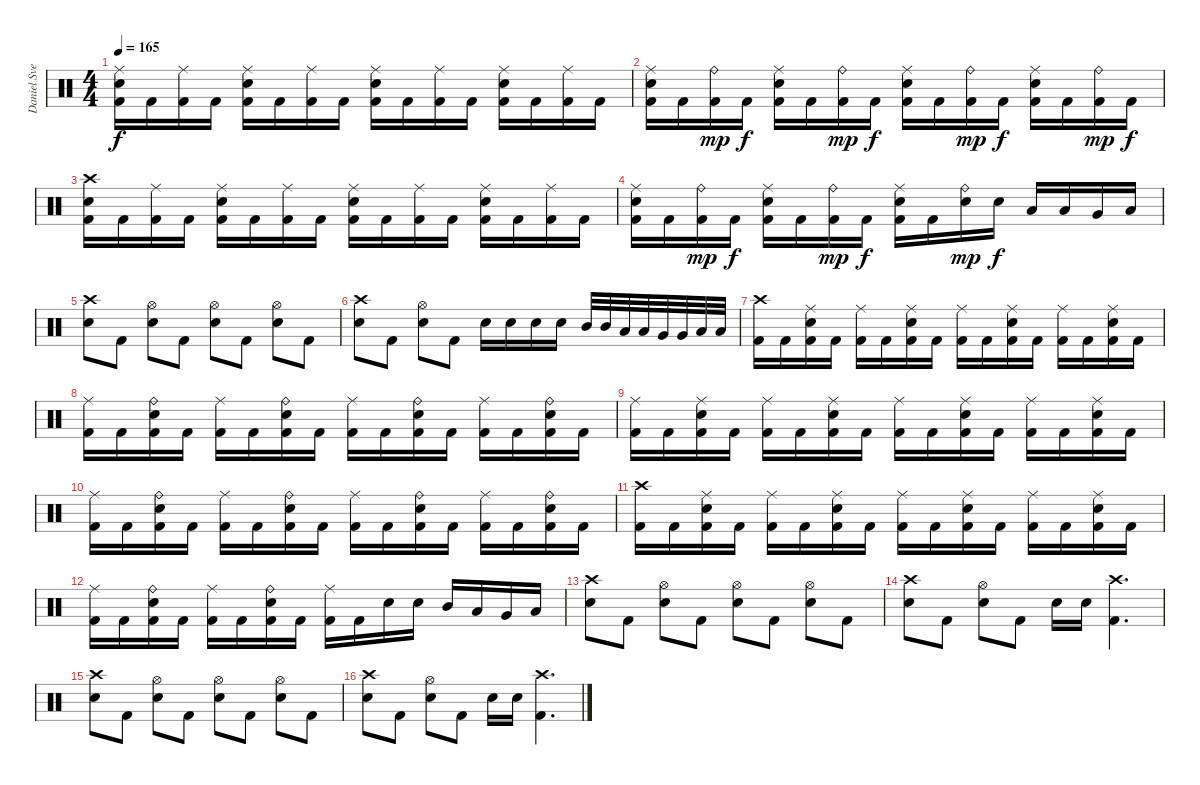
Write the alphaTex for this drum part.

\track ("Daniel Svensson" "Daniel Sve") {instrument percussion}
\staff {score}
\articulation defaults
\ts (4 4)
\tempo 165
\clef neutral
\ks c
("Ride (middle)" "Electric Snare (hit)" "Kick (hit) 2").16{dy f} "Kick (hit) 2".16 ("Ride (middle)" "Kick (hit) 2").16 "Kick (hit) 2".16 ("Ride (middle)" "Electric Snare (hit)" "Kick (hit) 2").16 "Kick (hit) 2".16 ("Ride (middle)" "Kick (hit) 2").16 "Kick (hit) 2".16 ("Ride (middle)" "Electric Snare (hit)" "Kick (hit) 2").16 "Kick (hit) 2".16 ("Ride (middle)" "Kick (hit) 2").16 "Kick (hit) 2".16 ("Ride (middle)" "Electric Snare (hit)" "Kick (hit) 2").16 "Kick (hit) 2".16 ("Ride (middle)" "Kick (hit) 2").16 "Kick (hit) 2".16 |
("Ride (middle)" "Electric Snare (hit)" "Kick (hit) 2").16 "Kick (hit) 2".16 ("Ride (bell)" "Kick (hit) 2").16{dy mp} "Kick (hit) 2".16{dy f} ("Ride (middle)" "Electric Snare (hit)" "Kick (hit) 2").16 "Kick (hit) 2".16 ("Ride (bell)" "Kick (hit) 2").16{dy mp} "Kick (hit) 2".16{dy f} ("Ride (middle)" "Electric Snare (hit)" "Kick (hit) 2").16 "Kick (hit) 2".16 ("Ride (bell)" "Kick (hit) 2").16{dy mp} "Kick (hit) 2".16{dy f} ("Ride (middle)" "Electric Snare (hit)" "Kick (hit) 2").16 "Kick (hit) 2".16 ("Ride (bell)" "Kick (hit) 2").16{dy mp} "Kick (hit) 2".16{dy f} |
("Crash high (hit)" "Electric Snare (hit)" "Kick (hit) 2").16 "Kick (hit) 2".16 ("Ride (middle)" "Kick (hit) 2").16 "Kick (hit) 2".16 ("Ride (middle)" "Electric Snare (hit)" "Kick (hit) 2").16 "Kick (hit) 2".16 ("Ride (middle)" "Kick (hit) 2").16 "Kick (hit) 2".16 ("Ride (middle)" "Electric Snare (hit)" "Kick (hit) 2").16 "Kick (hit) 2".16 ("Ride (middle)" "Kick (hit) 2").16 "Kick (hit) 2".16 ("Ride (middle)" "Electric Snare (hit)" "Kick (hit) 2").16 "Kick (hit) 2".16 ("Ride (middle)" "Kick (hit) 2").16 "Kick (hit) 2".16 |
("Ride (middle)" "Electric Snare (hit)" "Kick (hit) 2").16 "Kick (hit) 2".16 ("Ride (bell)" "Kick (hit) 2").16{dy mp} "Kick (hit) 2".16{dy f} ("Ride (middle)" "Electric Snare (hit)" "Kick (hit) 2").16 "Kick (hit) 2".16 ("Ride (bell)" "Kick (hit) 2").16{dy mp} "Kick (hit) 2".16{dy f} ("Ride (middle)" "Electric Snare (hit)" "Kick (hit) 2").16 "Kick (hit) 2".16 ("Ride (bell)" "Electric Snare (hit)").16{dy mp} "Electric Snare (hit)".16{dy f} "Low Tom (hit)".16 "Low Tom (hit)".16 "Very Low Tom (hit)".16 "Low Floor Tom (hit)".16 |
("Crash high (hit)" "Electric Snare (hit)").8 "Kick (hit) 2".8 ("Hi-Hat (open)" "Electric Snare (hit)").8 "Kick (hit) 2".8 ("Hi-Hat (open)" "Electric Snare (hit)").8 "Kick (hit) 2".8 ("Hi-Hat (open)" "Electric Snare (hit)").8 "Kick (hit) 2".8 |
("Crash high (hit)" "Electric Snare (hit)").8 "Kick (hit) 2".8 ("Hi-Hat (open)" "Electric Snare (hit)").8 "Kick (hit) 2".8 "Electric Snare (hit)".16 "Electric Snare (hit)".16 "Electric Snare (hit)".16 "Electric Snare (hit)".16 "Mid Tom (hit)".32 "Mid Tom (hit)".32 "Low Tom (hit)".32 "Low Tom (hit)".32 "Very Low Tom (hit)".32 "Very Low Tom (hit)".32 "Low Floor Tom (hit)".32 "Low Floor Tom (hit)".32 |
("Crash high (hit)" "Kick (hit) 2").16 "Kick (hit) 2".16 ("Ride (middle)" "Electric Snare (hit)" "Kick (hit) 2").16 "Kick (hit) 2".16 ("Ride (middle)" "Kick (hit) 2").16 "Kick (hit) 2".16 ("Ride (middle)" "Electric Snare (hit)" "Kick (hit) 2").16 "Kick (hit) 2".16 ("Ride (middle)" "Kick (hit) 2").16 "Kick (hit) 2".16 ("Ride (middle)" "Electric Snare (hit)" "Kick (hit) 2").16 "Kick (hit) 2".16 ("Ride (middle)" "Kick (hit) 2").16 "Kick (hit) 2".16 ("Ride (middle)" "Electric Snare (hit)" "Kick (hit) 2").16 "Kick (hit) 2".16 |
("Ride (middle)" "Kick (hit) 2").16 "Kick (hit) 2".16 ("Ride (bell)" "Electric Snare (hit)" "Kick (hit) 2").16 "Kick (hit) 2".16 ("Ride (middle)" "Kick (hit) 2").16 "Kick (hit) 2".16 ("Ride (bell)" "Electric Snare (hit)" "Kick (hit) 2").16 "Kick (hit) 2".16 ("Ride (middle)" "Kick (hit) 2").16 "Kick (hit) 2".16 ("Ride (bell)" "Electric Snare (hit)" "Kick (hit) 2").16 "Kick (hit) 2".16 ("Ride (middle)" "Kick (hit) 2").16 "Kick (hit) 2".16 ("Ride (bell)" "Electric Snare (hit)" "Kick (hit) 2").16 "Kick (hit) 2".16 |
("Ride (middle)" "Kick (hit) 2").16 "Kick (hit) 2".16 ("Ride (middle)" "Electric Snare (hit)" "Kick (hit) 2").16 "Kick (hit) 2".16 ("Ride (middle)" "Kick (hit) 2").16 "Kick (hit) 2".16 ("Ride (middle)" "Electric Snare (hit)" "Kick (hit) 2").16 "Kick (hit) 2".16 ("Ride (middle)" "Kick (hit) 2").16 "Kick (hit) 2".16 ("Ride (middle)" "Electric Snare (hit)" "Kick (hit) 2").16 "Kick (hit) 2".16 ("Ride (middle)" "Kick (hit) 2").16 "Kick (hit) 2".16 ("Ride (middle)" "Electric Snare (hit)" "Kick (hit) 2").16 "Kick (hit) 2".16 |
("Ride (middle)" "Kick (hit) 2").16 "Kick (hit) 2".16 ("Ride (bell)" "Electric Snare (hit)" "Kick (hit) 2").16 "Kick (hit) 2".16 ("Ride (middle)" "Kick (hit) 2").16 "Kick (hit) 2".16 ("Ride (bell)" "Electric Snare (hit)" "Kick (hit) 2").16 "Kick (hit) 2".16 ("Ride (middle)" "Kick (hit) 2").16 "Kick (hit) 2".16 ("Ride (bell)" "Electric Snare (hit)" "Kick (hit) 2").16 "Kick (hit) 2".16 ("Ride (middle)" "Kick (hit) 2").16 "Kick (hit) 2".16 ("Ride (bell)" "Electric Snare (hit)" "Kick (hit) 2").16 "Kick (hit) 2".16 |
("Crash high (hit)" "Kick (hit) 2").16 "Kick (hit) 2".16 ("Ride (middle)" "Electric Snare (hit)" "Kick (hit) 2").16 "Kick (hit) 2".16 ("Ride (middle)" "Kick (hit) 2").16 "Kick (hit) 2".16 ("Ride (middle)" "Electric Snare (hit)" "Kick (hit) 2").16 "Kick (hit) 2".16 ("Ride (middle)" "Kick (hit) 2").16 "Kick (hit) 2".16 ("Ride (middle)" "Electric Snare (hit)" "Kick (hit) 2").16 "Kick (hit) 2".16 ("Ride (middle)" "Kick (hit) 2").16 "Kick (hit) 2".16 ("Ride (middle)" "Electric Snare (hit)" "Kick (hit) 2").16 "Kick (hit) 2".16 |
("Ride (middle)" "Kick (hit) 2").16 "Kick (hit) 2".16 ("Ride (bell)" "Electric Snare (hit)" "Kick (hit) 2").16 "Kick (hit) 2".16 ("Ride (middle)" "Kick (hit) 2").16 "Kick (hit) 2".16 ("Ride (bell)" "Electric Snare (hit)" "Kick (hit) 2").16 "Kick (hit) 2".16 ("Ride (middle)" "Kick (hit) 2").16 "Kick (hit) 2".16 "Electric Snare (hit)".16 "Electric Snare (hit)".16 "Mid Tom (hit)".16 "Low Tom (hit)".16 "Very Low Tom (hit)".16 "Low Floor Tom (hit)".16 |
("Crash high (hit)" "Electric Snare (hit)").8 "Kick (hit) 2".8 ("Hi-Hat (open)" "Electric Snare (hit)").8 "Kick (hit) 2".8 ("Hi-Hat (open)" "Electric Snare (hit)").8 "Kick (hit) 2".8 ("Hi-Hat (open)" "Electric Snare (hit)").8 "Kick (hit) 2".8 |
("Crash high (hit)" "Electric Snare (hit)").8 "Kick (hit) 2".8 ("Hi-Hat (open)" "Electric Snare (hit)").8 "Kick (hit) 2".8 "Electric Snare (hit)".16 "Electric Snare (hit)".16 ("Crash high (hit)" "Kick (hit) 2").4{d} |
("Crash high (hit)" "Electric Snare (hit)").8 "Kick (hit) 2".8 ("Hi-Hat (open)" "Electric Snare (hit)").8 "Kick (hit) 2".8 ("Hi-Hat (open)" "Electric Snare (hit)").8 "Kick (hit) 2".8 ("Hi-Hat (open)" "Electric Snare (hit)").8 "Kick (hit) 2".8 |
("Crash high (hit)" "Electric Snare (hit)").8 "Kick (hit) 2".8 ("Hi-Hat (open)" "Electric Snare (hit)").8 "Kick (hit) 2".8 "Electric Snare (hit)".16 "Electric Snare (hit)".16 ("Crash high (hit)" "Kick (hit) 2").4{d}
